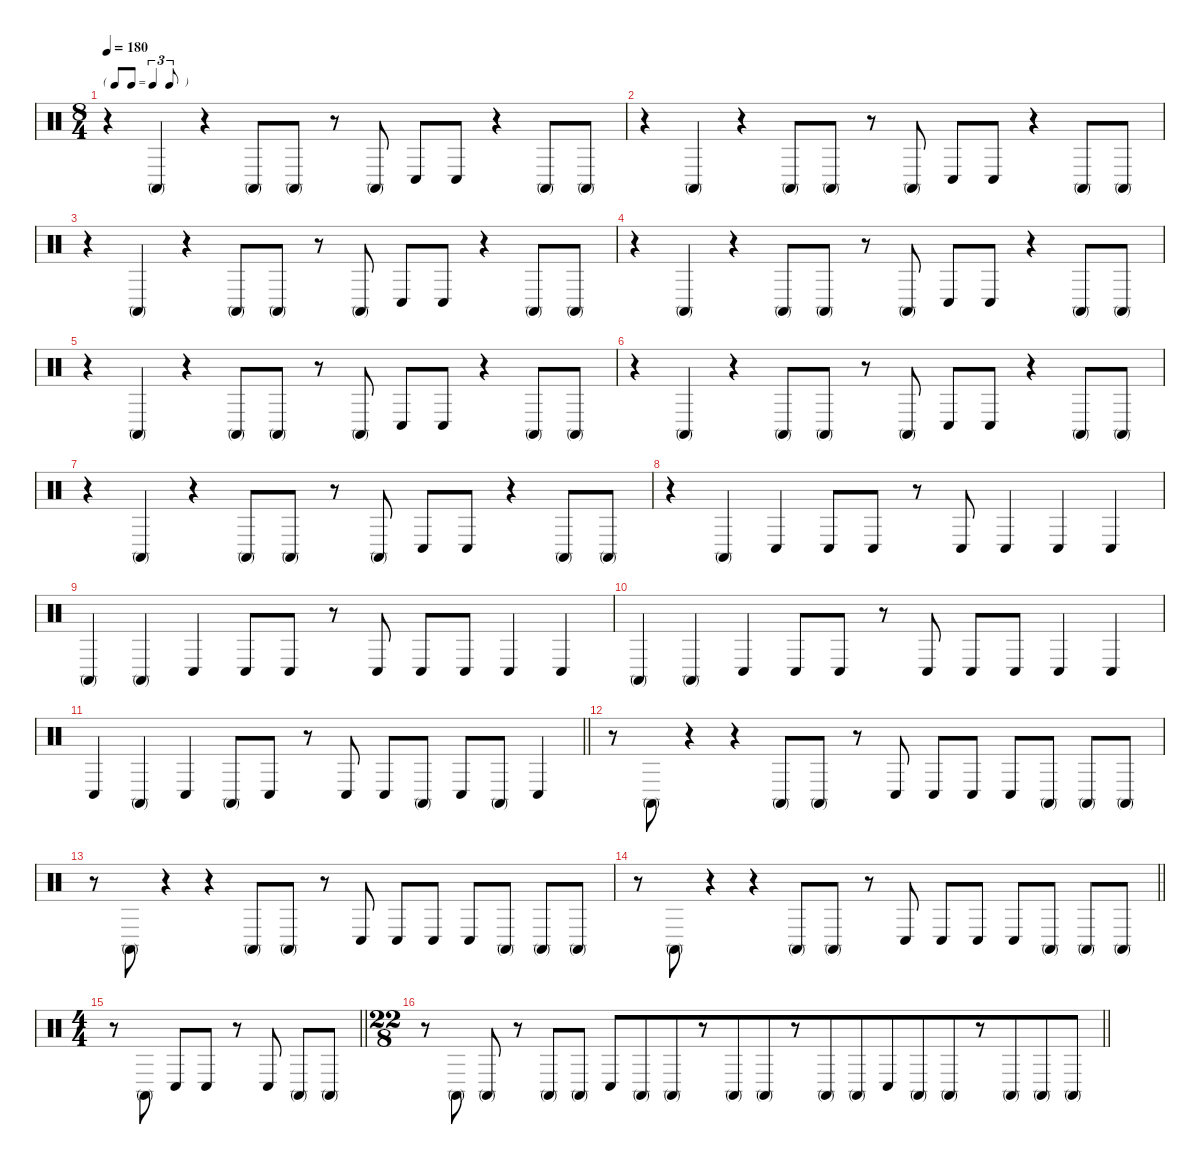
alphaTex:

\defaultSystemsLayout 4
\hideDynamics
\bracketExtendMode nobrackets
\singleTrackTrackNamePolicy hidden
\multiTrackTrackNamePolicy hidden
\firstSystemTrackNameMode fullname
\firstSystemTrackNameOrientation horizontal
\otherSystemsTrackNameOrientation horizontal
\track ("Congas" "drm.") {instrument percussion}
\staff {score}
\articulation defaults
\ts (8 4)
\tf triplet8th
\tempo 180
\clef neutral
\ks c
r.4{dy f beam Down} "Conga high (mute)".4{beam Up} r.4{beam Up} "Conga high (mute)".8{beam Up} "Conga high (mute)".8{beam Up} r.8{beam Up} "Conga high (mute)".8{beam Up} "Conga low (hit)".8{beam Up} "Conga low (hit)".8{beam Up} r.4{beam Up} "Conga high (mute)".8{beam Up} "Conga high (mute)".8{beam Up} |
r.4{beam Down} "Conga high (mute)".4{beam Up} r.4{beam Up} "Conga high (mute)".8{beam Up} "Conga high (mute)".8{beam Up} r.8{beam Up} "Conga high (mute)".8{beam Up} "Conga low (hit)".8{beam Up} "Conga low (hit)".8{beam Up} r.4{beam Up} "Conga high (mute)".8{beam Up} "Conga high (mute)".8{beam Up} |
r.4{beam Down} "Conga high (mute)".4{beam Up} r.4{beam Up} "Conga high (mute)".8{beam Up} "Conga high (mute)".8{beam Up} r.8{beam Up} "Conga high (mute)".8{beam Up} "Conga low (hit)".8{beam Up} "Conga low (hit)".8{beam Up} r.4{beam Up} "Conga high (mute)".8{beam Up} "Conga high (mute)".8{beam Up} |
r.4{beam Down} "Conga high (mute)".4{beam Up} r.4{beam Up} "Conga high (mute)".8{beam Up} "Conga high (mute)".8{beam Up} r.8{beam Up} "Conga high (mute)".8{beam Up} "Conga low (hit)".8{beam Up} "Conga low (hit)".8{beam Up} r.4{beam Up} "Conga high (mute)".8{beam Up} "Conga high (mute)".8{beam Up} |
r.4{beam Down} "Conga high (mute)".4{beam Up} r.4{beam Up} "Conga high (mute)".8{beam Up} "Conga high (mute)".8{beam Up} r.8{beam Up} "Conga high (mute)".8{beam Up} "Conga low (hit)".8{beam Up} "Conga low (hit)".8{beam Up} r.4{beam Up} "Conga high (mute)".8{beam Up} "Conga high (mute)".8{beam Up} |
r.4{beam Down} "Conga high (mute)".4{beam Up} r.4{beam Up} "Conga high (mute)".8{beam Up} "Conga high (mute)".8{beam Up} r.8{beam Up} "Conga high (mute)".8{beam Up} "Conga low (hit)".8{beam Up} "Conga low (hit)".8{beam Up} r.4{beam Up} "Conga high (mute)".8{beam Up} "Conga high (mute)".8{beam Up} |
r.4{beam Down} "Conga high (mute)".4{beam Up} r.4{beam Up} "Conga high (mute)".8{beam Up} "Conga high (mute)".8{beam Up} r.8{beam Up} "Conga high (mute)".8{beam Up} "Conga low (hit)".8{beam Up} "Conga low (hit)".8{beam Up} r.4{beam Up} "Conga high (mute)".8{beam Up} "Conga high (mute)".8{beam Up} |
r.4{beam Down} "Conga high (mute)".4{beam Up} "Conga low (hit)".4{beam Up} "Conga low (hit)".8{beam Up} "Conga low (hit)".8{beam Up} r.8{beam Up} "Conga low (hit)".8{beam Up} "Conga low (hit)".4{beam Up} "Conga low (hit)".4{beam Up} "Conga low (hit)".4{beam Up} |
"Conga high (mute)".4{beam Up} "Conga high (mute)".4{beam Up} "Conga low (hit)".4{beam Up} "Conga low (hit)".8{beam Up} "Conga low (hit)".8{beam Up} r.8{beam Up} "Conga low (hit)".8{beam Up} "Conga low (hit)".8{beam Up} "Conga low (hit)".8{beam Up} "Conga low (hit)".4{beam Up} "Conga low (hit)".4{beam Up} |
"Conga high (mute)".4{beam Up} "Conga high (mute)".4{beam Up} "Conga low (hit)".4{beam Up} "Conga low (hit)".8{beam Up} "Conga low (hit)".8{beam Up} r.8{beam Up} "Conga low (hit)".8{beam Up} "Conga low (hit)".8{beam Up} "Conga low (hit)".8{beam Up} "Conga low (hit)".4{beam Up} "Conga low (hit)".4{beam Up} |
\barLineRight lightlight "Conga low (hit)".4{beam Up} "Conga high (mute)".4{beam Up} "Conga low (hit)".4{beam Up} "Conga high (mute)".8{beam Up} "Conga low (hit)".8{beam Up}
r.8{beam Up} "Conga low (hit)".8{beam Up} "Conga low (hit)".8{beam Up} "Conga high (mute)".8{beam Up} "Conga low (hit)".8{beam Up} "Conga high (mute)".8{beam Up} "Conga low (hit)".4{beam Up} |
r.8{beam Down} "Conga high (mute)".8{beam Up} r.4{beam Up} r.4{beam Up} "Conga high (mute)".8{beam Up} "Conga high (mute)".8{beam Up} r.8{beam Up} "Conga low (hit)".8{beam Up} "Conga low (hit)".8{beam Up} "Conga low (hit)".8{beam Up} "Conga low (hit)".8{beam Up} "Conga high (mute)".8{beam Up} "Conga high (mute)".8{beam Up} "Conga high (mute)".8{beam Up} |
r.8{beam Down} "Conga high (mute)".8{beam Up} r.4{beam Up} r.4{beam Up} "Conga high (mute)".8{beam Up} "Conga high (mute)".8{beam Up} r.8{beam Up} "Conga low (hit)".8{beam Up} "Conga low (hit)".8{beam Up} "Conga low (hit)".8{beam Up} "Conga low (hit)".8{beam Up} "Conga high (mute)".8{beam Up} "Conga high (mute)".8{beam Up} "Conga high (mute)".8{beam Up} |
\barLineRight lightlight
r.8{beam Down} "Conga high (mute)".8{beam Up} r.4{beam Up} r.4{beam Up} "Conga high (mute)".8{beam Up} "Conga high (mute)".8{beam Up} r.8{beam Up} "Conga low (hit)".8{beam Up} "Conga low (hit)".8{beam Up} "Conga low (hit)".8{beam Up} "Conga low (hit)".8{beam Up} "Conga high (mute)".8{beam Up} "Conga high (mute)".8{beam Up} "Conga high (mute)".8{beam Up} |
\ts (4 4)
\beaming (8 2 2 2 2)
\barLineRight lightlight
r.8{beam Down} "Conga high (mute)".8{beam Up} "Conga low (hit)".8{beam Up} "Conga low (hit)".8{beam Up} r.8{beam Up} "Conga low (hit)".8{beam Up} "Conga high (mute)".8{beam Up} "Conga high (mute)".8{beam Up} |
\ts (22 8)
\beaming (8 2 2 2 16)
\barLineRight lightlight
r.8{beam Down} "Conga high (mute)".8{beam Up} "Conga high (mute)".8{beam Up} r.8{beam Up} "Conga high (mute)".8{beam Up} "Conga high (mute)".8{beam Up} "Conga low (hit)".8{beam Up} "Conga high (mute)".8{beam Up} "Conga high (mute)".8{beam Up} r.8{beam Up} "Conga high (mute)".8{beam Up} "Conga high (mute)".8{beam Up} r.8{beam Up} "Conga high (mute)".8{beam Up} "Conga high (mute)".8{beam Up} "Conga low (hit)".8{beam Up} "Conga high (mute)".8{beam Up} "Conga high (mute)".8{beam Up} r.8{beam Up} "Conga high (mute)".8{beam Up} "Conga high (mute)".8{beam Up} "Conga high (mute)".8{beam Up}
